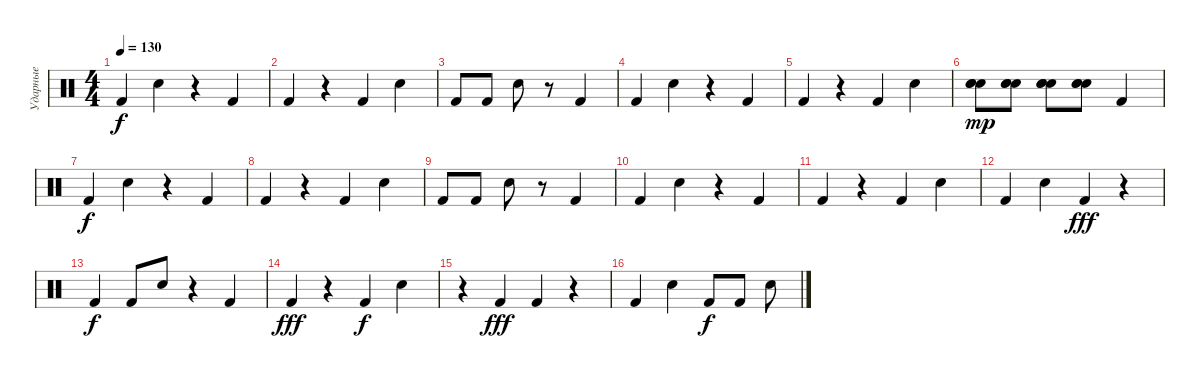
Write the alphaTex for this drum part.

\track ("Ударные" "Ударные") {instrument percussion}
\staff {score}
\articulation defaults
\ts (4 4)
\tempo 130
\clef neutral
\ks c "Kick (hit) 2".4{dy f} "Electric Snare (hit)".4
r.4 "Kick (hit) 2".4 |
"Kick (hit) 2".4 r.4 "Kick (hit) 2".4 "Electric Snare (hit)".4 |
"Kick (hit) 2".8 "Kick (hit) 2".8 "Electric Snare (hit)".8 r.8 "Kick (hit) 2".4 |
"Kick (hit) 2".4 "Electric Snare (hit)".4 r.4 "Kick (hit) 2".4 |
"Kick (hit) 2".4 r.4 "Kick (hit) 2".4 "Electric Snare (hit)".4 |
("Electric Snare (hit)" "Electric Snare (hit)" "Electric Snare (hit)").8{dy mp} ("Electric Snare (hit)" "Electric Snare (hit)" "Electric Snare (hit)").8 ("Electric Snare (hit)" "Electric Snare (hit)" "Electric Snare (hit)").8 ("Electric Snare (hit)" "Electric Snare (hit)" "Electric Snare (hit)").8 "Kick (hit) 2".4 |
"Kick (hit) 2".4{dy f} "Electric Snare (hit)".4 r.4 "Kick (hit) 2".4 |
"Kick (hit) 2".4 r.4 "Kick (hit) 2".4 "Electric Snare (hit)".4 |
"Kick (hit) 2".8 "Kick (hit) 2".8 "Electric Snare (hit)".8 r.8 "Kick (hit) 2".4 |
"Kick (hit) 2".4 "Electric Snare (hit)".4 r.4 "Kick (hit) 2".4 |
"Kick (hit) 2".4 r.4 "Kick (hit) 2".4 "Electric Snare (hit)".4 |
"Kick (hit) 2".4 "Electric Snare (hit)".4 "Kick (hit) 2".4{dy fff} r.4 |
"Kick (hit) 2".4{dy f} "Kick (hit) 2".8 "Electric Snare (hit)".8 r.4 "Kick (hit) 2".4 |
"Kick (hit) 2".4{dy fff} r.4 "Kick (hit) 2".4{dy f} "Electric Snare (hit)".4 |
r.4 "Kick (hit) 2".4{dy fff} "Kick (hit) 2".4 r.4 |
"Kick (hit) 2".4 "Electric Snare (hit)".4 "Kick (hit) 2".8{dy f} "Kick (hit) 2".8 "Electric Snare (hit)".8
